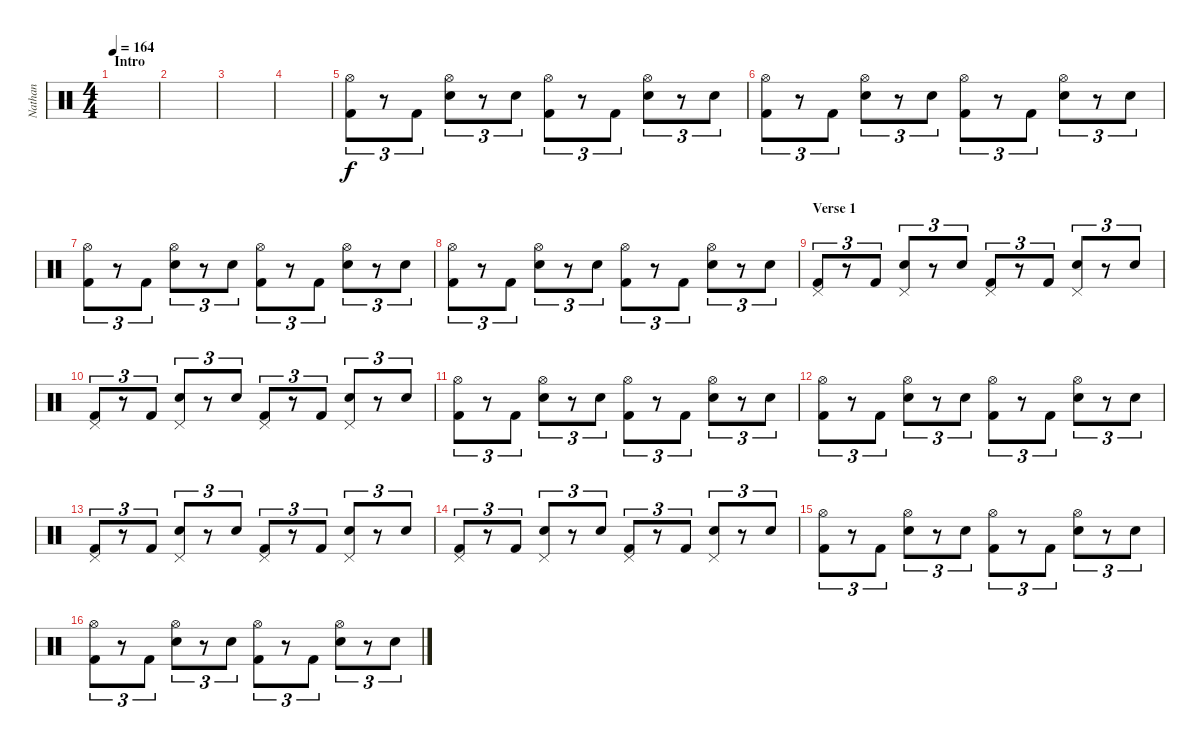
\track ("Nathan" "Nathan") {instrument percussion}
\staff {score}
\articulation defaults
\ts (4 4)
\section ("" "Intro")
\tempo 164
\clef neutral
\ks c
|
|
|
|
("Hi-Hat (open)" "Kick (hit) 2").8{tu (3 2)} r.8{tu (3 2)} "Kick (hit) 2".8{tu (3 2)} ("Hi-Hat (open)" "Snare (hit) 2").8{tu (3 2)} r.8{tu (3 2)} "Snare (hit) 2".8{tu (3 2)} ("Hi-Hat (open)" "Kick (hit) 2").8{tu (3 2)} r.8{tu (3 2)} "Kick (hit) 2".8{tu (3 2)} ("Hi-Hat (open)" "Snare (hit) 2").8{tu (3 2)} r.8{tu (3 2)} "Snare (hit) 2".8{tu (3 2)} |
("Hi-Hat (open)" "Kick (hit) 2").8{tu (3 2)} r.8{tu (3 2)} "Kick (hit) 2".8{tu (3 2)} ("Hi-Hat (open)" "Snare (hit) 2").8{tu (3 2)} r.8{tu (3 2)} "Snare (hit) 2".8{tu (3 2)} ("Hi-Hat (open)" "Kick (hit) 2").8{tu (3 2)} r.8{tu (3 2)} "Kick (hit) 2".8{tu (3 2)} ("Hi-Hat (open)" "Snare (hit) 2").8{tu (3 2)} r.8{tu (3 2)} "Snare (hit) 2".8{tu (3 2)} |
("Hi-Hat (open)" "Kick (hit) 2").8{tu (3 2)} r.8{tu (3 2)} "Kick (hit) 2".8{tu (3 2)} ("Hi-Hat (open)" "Snare (hit) 2").8{tu (3 2)} r.8{tu (3 2)} "Snare (hit) 2".8{tu (3 2)} ("Hi-Hat (open)" "Kick (hit) 2").8{tu (3 2)} r.8{tu (3 2)} "Kick (hit) 2".8{tu (3 2)} ("Hi-Hat (open)" "Snare (hit) 2").8{tu (3 2)} r.8{tu (3 2)} "Snare (hit) 2".8{tu (3 2)} |
("Hi-Hat (open)" "Kick (hit) 2").8{tu (3 2)} r.8{tu (3 2)} "Kick (hit) 2".8{tu (3 2)} ("Hi-Hat (open)" "Snare (hit) 2").8{tu (3 2)} r.8{tu (3 2)} "Snare (hit) 2".8{tu (3 2)} ("Hi-Hat (open)" "Kick (hit) 2").8{tu (3 2)} r.8{tu (3 2)} "Kick (hit) 2".8{tu (3 2)} ("Hi-Hat (open)" "Snare (hit) 2").8{tu (3 2)} r.8{tu (3 2)} "Snare (hit) 2".8{tu (3 2)} |
\section ("" "Verse 1")
("Pedal Hi-Hat (hit)" "Kick (hit) 2").8{tu (3 2)} r.8{tu (3 2)} "Kick (hit) 2".8{tu (3 2)} ("Pedal Hi-Hat (hit)" "Snare (hit) 2").8{tu (3 2)} r.8{tu (3 2)} "Snare (hit) 2".8{tu (3 2)} ("Pedal Hi-Hat (hit)" "Kick (hit) 2").8{tu (3 2)} r.8{tu (3 2)} "Kick (hit) 2".8{tu (3 2)} ("Pedal Hi-Hat (hit)" "Snare (hit) 2").8{tu (3 2)} r.8{tu (3 2)} "Snare (hit) 2".8{tu (3 2)} |
("Pedal Hi-Hat (hit)" "Kick (hit) 2").8{tu (3 2)} r.8{tu (3 2)} "Kick (hit) 2".8{tu (3 2)} ("Pedal Hi-Hat (hit)" "Snare (hit) 2").8{tu (3 2)} r.8{tu (3 2)} "Snare (hit) 2".8{tu (3 2)} ("Pedal Hi-Hat (hit)" "Kick (hit) 2").8{tu (3 2)} r.8{tu (3 2)} "Kick (hit) 2".8{tu (3 2)} ("Pedal Hi-Hat (hit)" "Snare (hit) 2").8{tu (3 2)} r.8{tu (3 2)} "Snare (hit) 2".8{tu (3 2)} |
("Hi-Hat (open)" "Kick (hit) 2").8{tu (3 2)} r.8{tu (3 2)} "Kick (hit) 2".8{tu (3 2)} ("Hi-Hat (open)" "Snare (hit) 2").8{tu (3 2)} r.8{tu (3 2)} "Snare (hit) 2".8{tu (3 2)} ("Hi-Hat (open)" "Kick (hit) 2").8{tu (3 2)} r.8{tu (3 2)} "Kick (hit) 2".8{tu (3 2)} ("Hi-Hat (open)" "Snare (hit) 2").8{tu (3 2)} r.8{tu (3 2)} "Snare (hit) 2".8{tu (3 2)} |
("Hi-Hat (open)" "Kick (hit) 2").8{tu (3 2)} r.8{tu (3 2)} "Kick (hit) 2".8{tu (3 2)} ("Hi-Hat (open)" "Snare (hit) 2").8{tu (3 2)} r.8{tu (3 2)} "Snare (hit) 2".8{tu (3 2)} ("Hi-Hat (open)" "Kick (hit) 2").8{tu (3 2)} r.8{tu (3 2)} "Kick (hit) 2".8{tu (3 2)} ("Hi-Hat (open)" "Snare (hit) 2").8{tu (3 2)} r.8{tu (3 2)} "Snare (hit) 2".8{tu (3 2)} |
("Pedal Hi-Hat (hit)" "Kick (hit) 2").8{tu (3 2)} r.8{tu (3 2)} "Kick (hit) 2".8{tu (3 2)} ("Pedal Hi-Hat (hit)" "Snare (hit) 2").8{tu (3 2)} r.8{tu (3 2)} "Snare (hit) 2".8{tu (3 2)} ("Pedal Hi-Hat (hit)" "Kick (hit) 2").8{tu (3 2)} r.8{tu (3 2)} "Kick (hit) 2".8{tu (3 2)} ("Pedal Hi-Hat (hit)" "Snare (hit) 2").8{tu (3 2)} r.8{tu (3 2)} "Snare (hit) 2".8{tu (3 2)} |
("Pedal Hi-Hat (hit)" "Kick (hit) 2").8{tu (3 2)} r.8{tu (3 2)} "Kick (hit) 2".8{tu (3 2)} ("Pedal Hi-Hat (hit)" "Snare (hit) 2").8{tu (3 2)} r.8{tu (3 2)} "Snare (hit) 2".8{tu (3 2)} ("Pedal Hi-Hat (hit)" "Kick (hit) 2").8{tu (3 2)} r.8{tu (3 2)} "Kick (hit) 2".8{tu (3 2)} ("Pedal Hi-Hat (hit)" "Snare (hit) 2").8{tu (3 2)} r.8{tu (3 2)} "Snare (hit) 2".8{tu (3 2)} |
("Hi-Hat (open)" "Kick (hit) 2").8{tu (3 2)} r.8{tu (3 2)} "Kick (hit) 2".8{tu (3 2)} ("Hi-Hat (open)" "Snare (hit) 2").8{tu (3 2)} r.8{tu (3 2)} "Snare (hit) 2".8{tu (3 2)} ("Hi-Hat (open)" "Kick (hit) 2").8{tu (3 2)} r.8{tu (3 2)} "Kick (hit) 2".8{tu (3 2)} ("Hi-Hat (open)" "Snare (hit) 2").8{tu (3 2)} r.8{tu (3 2)} "Snare (hit) 2".8{tu (3 2)} |
("Hi-Hat (open)" "Kick (hit) 2").8{tu (3 2)} r.8{tu (3 2)} "Kick (hit) 2".8{tu (3 2)} ("Hi-Hat (open)" "Snare (hit) 2").8{tu (3 2)} r.8{tu (3 2)} "Snare (hit) 2".8{tu (3 2)} ("Hi-Hat (open)" "Kick (hit) 2").8{tu (3 2)} r.8{tu (3 2)} "Kick (hit) 2".8{tu (3 2)} ("Hi-Hat (open)" "Snare (hit) 2").8{tu (3 2)} r.8{tu (3 2)} "Snare (hit) 2".8{tu (3 2)}
